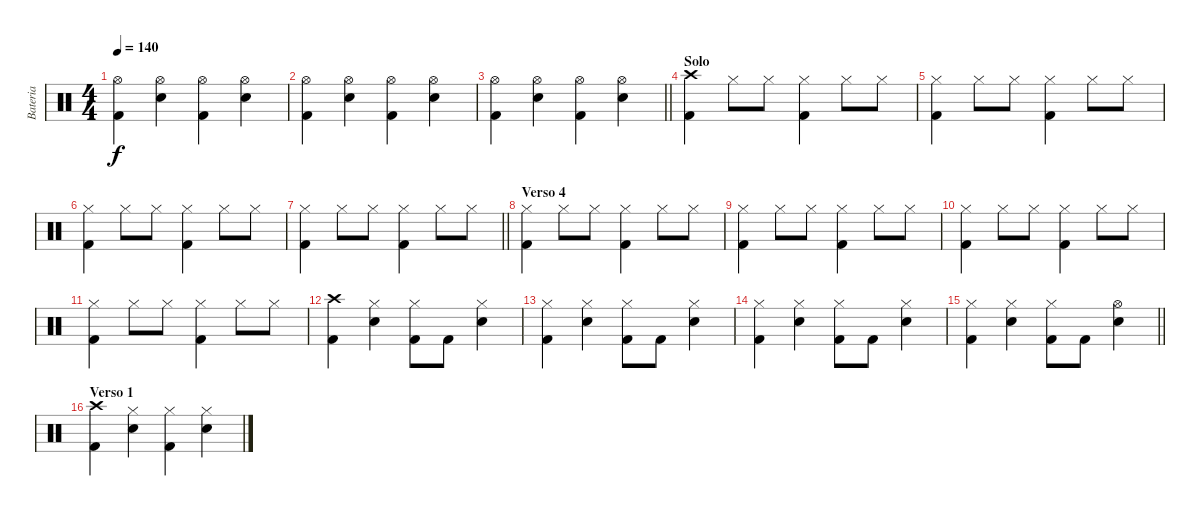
\track ("Bateria" "Bateria") {instrument percussion}
\staff {score}
\articulation defaults
\ts (4 4)
\tempo 140
\clef neutral
\ks c
("Hi-Hat (open)" "Kick (hit) 2").4{dy f} ("Hi-Hat (open)" "Electric Snare (hit)").4 ("Hi-Hat (open)" "Kick (hit) 2").4 ("Hi-Hat (open)" "Electric Snare (hit)").4 |
("Hi-Hat (open)" "Kick (hit) 2").4 ("Hi-Hat (open)" "Electric Snare (hit)").4 ("Hi-Hat (open)" "Kick (hit) 2").4 ("Hi-Hat (open)" "Electric Snare (hit)").4 |
\barLineRight lightlight
("Hi-Hat (open)" "Kick (hit) 2").4 ("Hi-Hat (open)" "Electric Snare (hit)").4 ("Hi-Hat (open)" "Kick (hit) 2").4 ("Hi-Hat (open)" "Electric Snare (hit)").4 |
\section ("" "Solo")
("Crash high (hit)" "Kick (hit) 2").4 "Hi-Hat (closed)".8 "Hi-Hat (closed)".8 ("Hi-Hat (closed)" "Kick (hit) 2").4 "Hi-Hat (closed)".8 "Hi-Hat (closed)".8 |
("Hi-Hat (closed)" "Kick (hit) 2").4 "Hi-Hat (closed)".8 "Hi-Hat (closed)".8 ("Hi-Hat (closed)" "Kick (hit) 2").4 "Hi-Hat (closed)".8 "Hi-Hat (closed)".8 |
("Hi-Hat (closed)" "Kick (hit) 2").4 "Hi-Hat (closed)".8 "Hi-Hat (closed)".8 ("Hi-Hat (closed)" "Kick (hit) 2").4 "Hi-Hat (closed)".8 "Hi-Hat (closed)".8 |
\barLineRight lightlight
("Hi-Hat (closed)" "Kick (hit) 2").4 "Hi-Hat (closed)".8 "Hi-Hat (closed)".8 ("Hi-Hat (closed)" "Kick (hit) 2").4 "Hi-Hat (closed)".8 "Hi-Hat (closed)".8 |
\section ("" "Verso 4")
("Hi-Hat (closed)" "Kick (hit) 2").4 "Hi-Hat (closed)".8 "Hi-Hat (closed)".8 ("Hi-Hat (closed)" "Kick (hit) 2").4 "Hi-Hat (closed)".8 "Hi-Hat (closed)".8 |
("Hi-Hat (closed)" "Kick (hit) 2").4 "Hi-Hat (closed)".8 "Hi-Hat (closed)".8 ("Hi-Hat (closed)" "Kick (hit) 2").4 "Hi-Hat (closed)".8 "Hi-Hat (closed)".8 |
("Hi-Hat (closed)" "Kick (hit) 2").4 "Hi-Hat (closed)".8 "Hi-Hat (closed)".8 ("Hi-Hat (closed)" "Kick (hit) 2").4 "Hi-Hat (closed)".8 "Hi-Hat (closed)".8 |
("Hi-Hat (closed)" "Kick (hit) 2").4 "Hi-Hat (closed)".8 "Hi-Hat (closed)".8 ("Hi-Hat (closed)" "Kick (hit) 2").4 "Hi-Hat (closed)".8 "Hi-Hat (closed)".8 |
("Crash high (hit)" "Kick (hit) 2").4 ("Hi-Hat (closed)" "Electric Snare (hit)").4 ("Hi-Hat (closed)" "Kick (hit) 2").8 "Kick (hit) 2".8 ("Hi-Hat (closed)" "Electric Snare (hit)").4 |
("Hi-Hat (closed)" "Kick (hit) 2").4 ("Hi-Hat (closed)" "Electric Snare (hit)").4 ("Hi-Hat (closed)" "Kick (hit) 2").8 "Kick (hit) 2".8 ("Hi-Hat (closed)" "Electric Snare (hit)").4 |
("Hi-Hat (closed)" "Kick (hit) 2").4 ("Hi-Hat (closed)" "Electric Snare (hit)").4 ("Hi-Hat (closed)" "Kick (hit) 2").8 "Kick (hit) 2".8 ("Hi-Hat (closed)" "Electric Snare (hit)").4 |
\barLineRight lightlight
("Hi-Hat (closed)" "Kick (hit) 2").4 ("Hi-Hat (closed)" "Electric Snare (hit)").4 ("Hi-Hat (closed)" "Kick (hit) 2").8 "Kick (hit) 2".8 ("Hi-Hat (open)" "Electric Snare (hit)").4 |
\section ("" "Verso 1")
("Crash high (hit)" "Kick (hit) 2").4 ("Hi-Hat (closed)" "Electric Snare (hit)").4 ("Hi-Hat (closed)" "Kick (hit) 2").4 ("Hi-Hat (closed)" "Electric Snare (hit)").4
